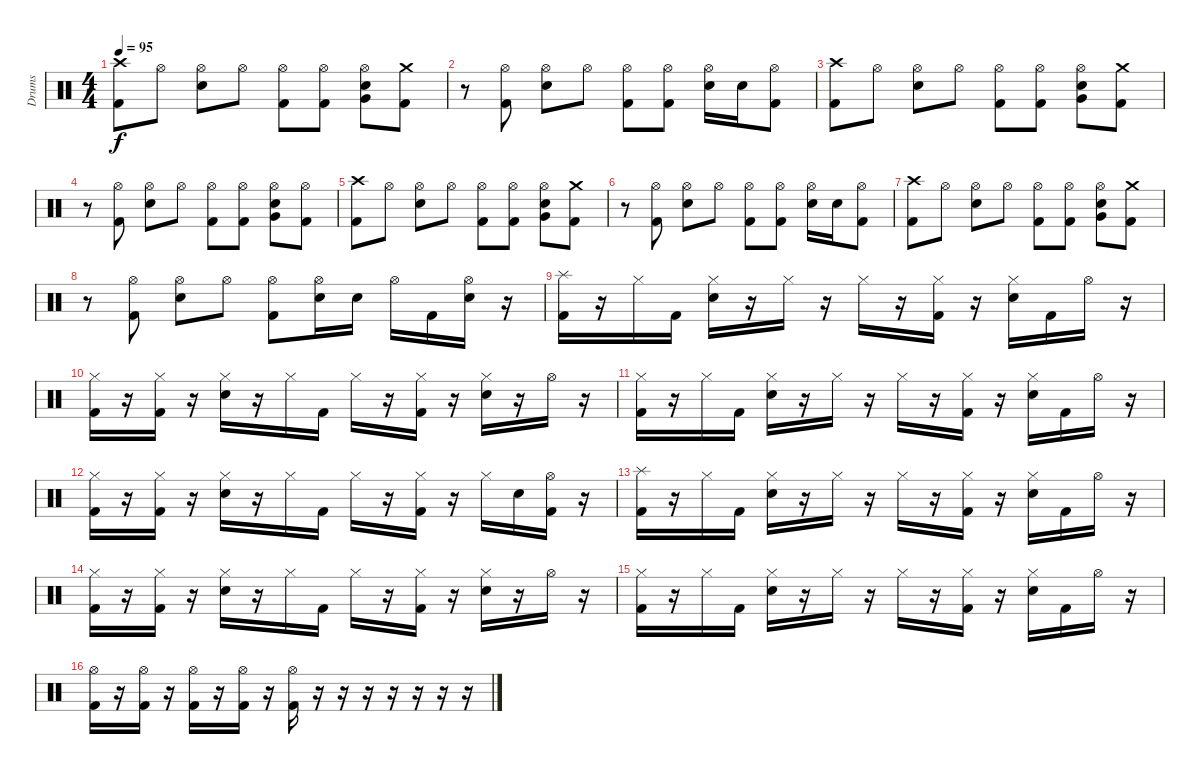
\track ("Drums" "Drums") {instrument percussion}
\staff {score}
\articulation defaults
\ts (4 4)
\tempo 95
\clef neutral
\ks c
("Crash high (hit)" "Kick (hit) 2").8{dy f} "Hi-Hat (open)".8 ("Hi-Hat (open)" "Electric Snare (hit)").8 "Hi-Hat (open)".8 ("Hi-Hat (open)" "Kick (hit) 2").8 ("Hi-Hat (open)" "Kick (hit) 2").8 ("Hi-Hat (open)" "Electric Snare (hit)" "Very Low Tom (hit)").8 ("Crash medium (hit)" "Kick (hit) 2").8 |
r.8 ("Hi-Hat (open)" "Kick (hit) 2").8 ("Hi-Hat (open)" "Electric Snare (hit)").8 "Hi-Hat (open)".8 ("Hi-Hat (open)" "Kick (hit) 2").8 ("Hi-Hat (open)" "Kick (hit) 2").8 ("Hi-Hat (open)" "Electric Snare (hit)").16 "Electric Snare (hit)".16 ("Hi-Hat (open)" "Kick (hit) 2").8 |
("Crash high (hit)" "Kick (hit) 2").8 "Hi-Hat (open)".8 ("Hi-Hat (open)" "Electric Snare (hit)").8 "Hi-Hat (open)".8 ("Hi-Hat (open)" "Kick (hit) 2").8 ("Hi-Hat (open)" "Kick (hit) 2").8 ("Hi-Hat (open)" "Electric Snare (hit)" "Very Low Tom (hit)").8 ("Crash medium (hit)" "Kick (hit) 2").8 |
r.8 ("Hi-Hat (open)" "Kick (hit) 2").8 ("Hi-Hat (open)" "Electric Snare (hit)").8 "Hi-Hat (open)".8 ("Hi-Hat (open)" "Kick (hit) 2").8 ("Hi-Hat (open)" "Kick (hit) 2").8 ("Hi-Hat (open)" "Electric Snare (hit)" "Very Low Tom (hit)").8 ("Hi-Hat (open)" "Kick (hit) 2").8 |
("Crash high (hit)" "Kick (hit) 2").8 "Hi-Hat (open)".8 ("Hi-Hat (open)" "Electric Snare (hit)").8 "Hi-Hat (open)".8 ("Hi-Hat (open)" "Kick (hit) 2").8 ("Hi-Hat (open)" "Kick (hit) 2").8 ("Hi-Hat (open)" "Electric Snare (hit)" "Very Low Tom (hit)").8 ("Crash medium (hit)" "Kick (hit) 2").8 |
r.8 ("Hi-Hat (open)" "Kick (hit) 2").8 ("Hi-Hat (open)" "Electric Snare (hit)").8 "Hi-Hat (open)".8 ("Hi-Hat (open)" "Kick (hit) 2").8 ("Hi-Hat (open)" "Kick (hit) 2").8 ("Hi-Hat (open)" "Electric Snare (hit)").16 "Electric Snare (hit)".16 ("Hi-Hat (open)" "Kick (hit) 2").8 |
("Crash high (hit)" "Kick (hit) 2").8 "Hi-Hat (open)".8 ("Hi-Hat (open)" "Electric Snare (hit)").8 "Hi-Hat (open)".8 ("Hi-Hat (open)" "Kick (hit) 2").8 ("Hi-Hat (open)" "Kick (hit) 2").8 ("Hi-Hat (open)" "Electric Snare (hit)" "Very Low Tom (hit)").8 ("Crash medium (hit)" "Kick (hit) 2").8 |
r.8 ("Hi-Hat (open)" "Kick (hit) 2").8 ("Hi-Hat (open)" "Electric Snare (hit)").8 "Hi-Hat (open)".8 ("Hi-Hat (open)" "Kick (hit) 2").8 ("Hi-Hat (open)" "Electric Snare (hit)").16 "Electric Snare (hit)".16 "Hi-Hat (open)".16 "Kick (hit) 2".16 ("Hi-Hat (open)" "Electric Snare (hit)").16 r.16 |
("Splash (hit)" "Kick (hit) 2").16 r.16 "Hi-Hat (closed)".16 "Kick (hit) 2".16 ("Hi-Hat (closed)" "Electric Snare (hit)").16 r.16 "Hi-Hat (closed)".16 r.16 "Hi-Hat (closed)".16 r.16 ("Hi-Hat (closed)" "Kick (hit) 2").16 r.16 ("Hi-Hat (closed)" "Electric Snare (hit)").16 "Kick (hit) 2".16 "Hi-Hat (open)".16 r.16 |
("Hi-Hat (closed)" "Kick (hit) 2").16 r.16 ("Hi-Hat (closed)" "Kick (hit) 2").16 r.16 ("Hi-Hat (closed)" "Electric Snare (hit)").16 r.16 "Hi-Hat (closed)".16 "Kick (hit) 2".16 "Hi-Hat (closed)".16 r.16 ("Hi-Hat (closed)" "Kick (hit) 2").16 r.16 ("Hi-Hat (closed)" "Electric Snare (hit)").16 r.16 "Hi-Hat (open)".16 r.16 |
("Hi-Hat (closed)" "Kick (hit) 2").16 r.16 "Hi-Hat (closed)".16 "Kick (hit) 2".16 ("Hi-Hat (closed)" "Electric Snare (hit)").16 r.16 "Hi-Hat (closed)".16 r.16 "Hi-Hat (closed)".16 r.16 ("Hi-Hat (closed)" "Kick (hit) 2").16 r.16 ("Hi-Hat (closed)" "Electric Snare (hit)").16 "Kick (hit) 2".16 "Hi-Hat (open)".16 r.16 |
("Hi-Hat (closed)" "Kick (hit) 2").16 r.16 ("Hi-Hat (closed)" "Kick (hit) 2").16 r.16 ("Hi-Hat (closed)" "Electric Snare (hit)").16 r.16 "Hi-Hat (closed)".16 "Kick (hit) 2".16 "Hi-Hat (closed)".16 r.16 ("Hi-Hat (closed)" "Kick (hit) 2").16 r.16 "Hi-Hat (closed)".16 "Electric Snare (hit)".16 ("Hi-Hat (open)" "Kick (hit) 2").16 r.16 |
("Splash (hit)" "Kick (hit) 2").16 r.16 "Hi-Hat (closed)".16 "Kick (hit) 2".16 ("Hi-Hat (closed)" "Electric Snare (hit)").16 r.16 "Hi-Hat (closed)".16 r.16 "Hi-Hat (closed)".16 r.16 ("Hi-Hat (closed)" "Kick (hit) 2").16 r.16 ("Hi-Hat (closed)" "Electric Snare (hit)").16 "Kick (hit) 2".16 "Hi-Hat (open)".16 r.16 |
("Hi-Hat (closed)" "Kick (hit) 2").16 r.16 ("Hi-Hat (closed)" "Kick (hit) 2").16 r.16 ("Hi-Hat (closed)" "Electric Snare (hit)").16 r.16 "Hi-Hat (closed)".16 "Kick (hit) 2".16 "Hi-Hat (closed)".16 r.16 ("Hi-Hat (closed)" "Kick (hit) 2").16 r.16 ("Hi-Hat (closed)" "Electric Snare (hit)").16 r.16 "Hi-Hat (open)".16 r.16 |
("Hi-Hat (closed)" "Kick (hit) 2").16 r.16 "Hi-Hat (closed)".16 "Kick (hit) 2".16 ("Hi-Hat (closed)" "Electric Snare (hit)").16 r.16 "Hi-Hat (closed)".16 r.16 "Hi-Hat (closed)".16 r.16 ("Hi-Hat (closed)" "Kick (hit) 2").16 r.16 ("Hi-Hat (closed)" "Electric Snare (hit)").16 "Kick (hit) 2".16 "Hi-Hat (open)".16 r.16 |
("Hi-Hat (open)" "Kick (hit) 2").16 r.16 ("Hi-Hat (open)" "Kick (hit) 2").16 r.16 ("Hi-Hat (open)" "Kick (hit) 2").16 r.16 ("Hi-Hat (open)" "Kick (hit) 2").16 r.16 ("Hi-Hat (open)" "Kick (hit) 2").16 r.16 r.16 r.16 r.16 r.16 r.16 r.16
